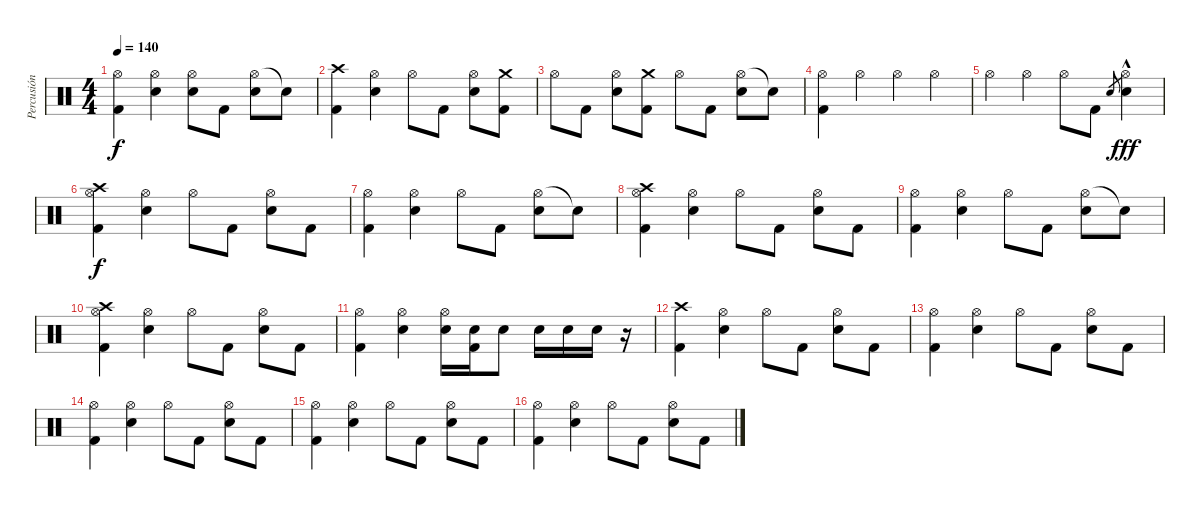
\track ("Percusión" "Percusión") {instrument percussion}
\staff {score}
\articulation defaults
\ts (4 4)
\tempo 140
\clef neutral
\ks c
("Hi-Hat (open)" "Kick (hit) 2").4{dy f} ("Hi-Hat (open)" "Snare (hit) 2").4 ("Hi-Hat (open)" "Snare (hit) 2").8 "Kick (hit) 2".8 ("Hi-Hat (open)" "Snare (hit) 2").8 "Snare (hit)"{t}.8 |
("Crash high (hit)" "Kick (hit) 2").4 ("Hi-Hat (open)" "Snare (hit) 2").4 "Hi-Hat (open)".8 "Kick (hit) 2".8 ("Hi-Hat (open)" "Snare (hit) 2").8 ("Crash medium (hit)" "Kick (hit) 2").8 |
"Hi-Hat (open)".8 "Kick (hit) 2".8 ("Hi-Hat (open)" "Snare (hit) 2").8 ("Crash medium (hit)" "Kick (hit) 2").8 "Hi-Hat (open)".8 "Kick (hit) 2".8 ("Hi-Hat (open)" "Snare (hit) 2").8 "Snare (hit)"{t}.8 |
("Hi-Hat (open)" "Kick (hit) 2").4 "Hi-Hat (open)".4 "Hi-Hat (open)".4 "Hi-Hat (open)".4 |
"Hi-Hat (open)".4 "Hi-Hat (open)".4 "Hi-Hat (open)".8 "Kick (hit) 2".8 "Snare (hit) 2".8{gr} ("Hi-Hat (open)" "Snare (hit) 2"{hac}).4{dy fff} |
("Crash high (hit)" "Hi-Hat (open)" "Kick (hit) 2").4{dy f} ("Hi-Hat (open)" "Snare (hit) 2").4 "Hi-Hat (open)".8 "Kick (hit) 2".8 ("Hi-Hat (open)" "Snare (hit) 2").8 "Kick (hit) 2".8 |
("Hi-Hat (open)" "Kick (hit) 2").4 ("Hi-Hat (open)" "Snare (hit) 2").4 "Hi-Hat (open)".8 "Kick (hit) 2".8 ("Hi-Hat (open)" "Snare (hit) 2").8 "Snare (hit)"{t}.8 |
("Crash high (hit)" "Hi-Hat (open)" "Kick (hit) 2").4 ("Hi-Hat (open)" "Snare (hit) 2").4 "Hi-Hat (open)".8 "Kick (hit) 2".8 ("Hi-Hat (open)" "Snare (hit) 2").8 "Kick (hit) 2".8 |
("Hi-Hat (open)" "Kick (hit) 2").4 ("Hi-Hat (open)" "Snare (hit) 2").4 "Hi-Hat (open)".8 "Kick (hit) 2".8 ("Hi-Hat (open)" "Snare (hit) 2").8 "Snare (hit)"{t}.8 |
("Crash high (hit)" "Hi-Hat (open)" "Kick (hit) 2").4 ("Hi-Hat (open)" "Snare (hit) 2").4 "Hi-Hat (open)".8 "Kick (hit) 2".8 ("Hi-Hat (open)" "Snare (hit) 2").8 "Kick (hit) 2".8 |
("Hi-Hat (open)" "Kick (hit) 2").4 ("Hi-Hat (open)" "Snare (hit) 2").4 ("Hi-Hat (open)" "Snare (hit) 2").16 ("Snare (hit) 2" "Kick (hit) 2").16 "Snare (hit) 2".8 "Snare (hit) 2".16 "Snare (hit) 2".16 "Snare (hit) 2".16 r.16 |
("Crash high (hit)" "Kick (hit) 2").4 ("Hi-Hat (open)" "Snare (hit) 2").4 "Hi-Hat (open)".8 "Kick (hit) 2".8 ("Hi-Hat (open)" "Snare (hit) 2").8 "Kick (hit) 2".8 |
("Hi-Hat (open)" "Kick (hit) 2").4 ("Hi-Hat (open)" "Snare (hit) 2").4 "Hi-Hat (open)".8 "Kick (hit) 2".8 ("Hi-Hat (open)" "Snare (hit) 2").8 "Kick (hit) 2".8 |
("Hi-Hat (open)" "Kick (hit) 2").4 ("Hi-Hat (open)" "Snare (hit) 2").4 "Hi-Hat (open)".8 "Kick (hit) 2".8 ("Hi-Hat (open)" "Snare (hit) 2").8 "Kick (hit) 2".8 |
("Hi-Hat (open)" "Kick (hit) 2").4 ("Hi-Hat (open)" "Snare (hit) 2").4 "Hi-Hat (open)".8 "Kick (hit) 2".8 ("Hi-Hat (open)" "Snare (hit) 2").8 "Kick (hit) 2".8 |
("Hi-Hat (open)" "Kick (hit) 2").4 ("Hi-Hat (open)" "Snare (hit) 2").4 "Hi-Hat (open)".8 "Kick (hit) 2".8 ("Hi-Hat (open)" "Snare (hit) 2").8 "Kick (hit) 2".8
